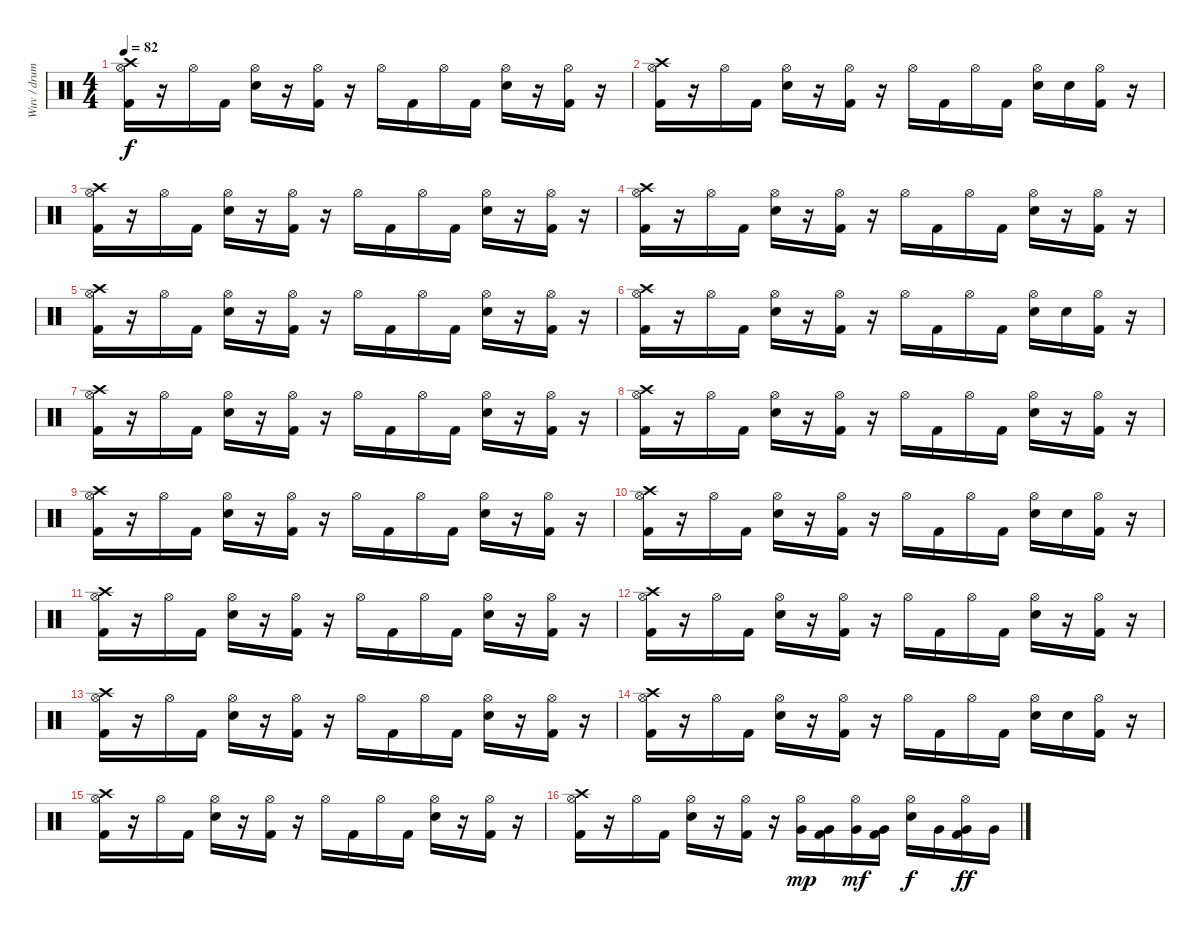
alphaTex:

\track ("Wuv / drums" "Wuv / drum") {instrument percussion}
\staff {score}
\articulation defaults
\ts (4 4)
\tempo 82
\clef neutral
\ks c
("Crash high (hit)" "Hi-Hat (open)" "Kick (hit) 2").16{dy f} r.16 "Hi-Hat (open)".16 "Kick (hit) 2".16 ("Hi-Hat (open)" "Snare (hit) 2").16 r.16 ("Hi-Hat (open)" "Kick (hit) 2").16 r.16 "Hi-Hat (open)".16 "Kick (hit) 2".16 "Hi-Hat (open)".16 "Kick (hit) 2".16 ("Hi-Hat (open)" "Snare (hit) 2").16 r.16 ("Hi-Hat (open)" "Kick (hit) 2").16 r.16 |
("Crash high (hit)" "Hi-Hat (open)" "Kick (hit) 2").16 r.16 "Hi-Hat (open)".16 "Kick (hit) 2".16 ("Hi-Hat (open)" "Snare (hit) 2").16 r.16 ("Hi-Hat (open)" "Kick (hit) 2").16 r.16 "Hi-Hat (open)".16 "Kick (hit) 2".16 "Hi-Hat (open)".16 "Kick (hit) 2".16 ("Hi-Hat (open)" "Snare (hit) 2").16 "Snare (hit) 2".16 ("Hi-Hat (open)" "Kick (hit) 2").16 r.16 |
("Crash high (hit)" "Hi-Hat (open)" "Kick (hit) 2").16 r.16 "Hi-Hat (open)".16 "Kick (hit) 2".16 ("Hi-Hat (open)" "Snare (hit) 2").16 r.16 ("Hi-Hat (open)" "Kick (hit) 2").16 r.16 "Hi-Hat (open)".16 "Kick (hit) 2".16 "Hi-Hat (open)".16 "Kick (hit) 2".16 ("Hi-Hat (open)" "Snare (hit) 2").16 r.16 ("Hi-Hat (open)" "Kick (hit) 2").16 r.16 |
("Crash high (hit)" "Hi-Hat (open)" "Kick (hit) 2").16 r.16 "Hi-Hat (open)".16 "Kick (hit) 2".16 ("Hi-Hat (open)" "Snare (hit) 2").16 r.16 ("Hi-Hat (open)" "Kick (hit) 2").16 r.16 "Hi-Hat (open)".16 "Kick (hit) 2".16 "Hi-Hat (open)".16 "Kick (hit) 2".16 ("Hi-Hat (open)" "Snare (hit) 2").16 r.16 ("Hi-Hat (open)" "Kick (hit) 2").16 r.16 |
("Crash high (hit)" "Hi-Hat (open)" "Kick (hit) 2").16 r.16 "Hi-Hat (open)".16 "Kick (hit) 2".16 ("Hi-Hat (open)" "Snare (hit) 2").16 r.16 ("Hi-Hat (open)" "Kick (hit) 2").16 r.16 "Hi-Hat (open)".16 "Kick (hit) 2".16 "Hi-Hat (open)".16 "Kick (hit) 2".16 ("Hi-Hat (open)" "Snare (hit) 2").16 r.16 ("Hi-Hat (open)" "Kick (hit) 2").16 r.16 |
("Crash high (hit)" "Hi-Hat (open)" "Kick (hit) 2").16 r.16 "Hi-Hat (open)".16 "Kick (hit) 2".16 ("Hi-Hat (open)" "Snare (hit) 2").16 r.16 ("Hi-Hat (open)" "Kick (hit) 2").16 r.16 "Hi-Hat (open)".16 "Kick (hit) 2".16 "Hi-Hat (open)".16 "Kick (hit) 2".16 ("Hi-Hat (open)" "Snare (hit) 2").16 "Snare (hit) 2".16 ("Hi-Hat (open)" "Kick (hit) 2").16 r.16 |
("Crash high (hit)" "Hi-Hat (open)" "Kick (hit) 2").16 r.16 "Hi-Hat (open)".16 "Kick (hit) 2".16 ("Hi-Hat (open)" "Snare (hit) 2").16 r.16 ("Hi-Hat (open)" "Kick (hit) 2").16 r.16 "Hi-Hat (open)".16 "Kick (hit) 2".16 "Hi-Hat (open)".16 "Kick (hit) 2".16 ("Hi-Hat (open)" "Snare (hit) 2").16 r.16 ("Hi-Hat (open)" "Kick (hit) 2").16 r.16 |
("Crash high (hit)" "Hi-Hat (open)" "Kick (hit) 2").16 r.16 "Hi-Hat (open)".16 "Kick (hit) 2".16 ("Hi-Hat (open)" "Snare (hit) 2").16 r.16 ("Hi-Hat (open)" "Kick (hit) 2").16 r.16 "Hi-Hat (open)".16 "Kick (hit) 2".16 "Hi-Hat (open)".16 "Kick (hit) 2".16 ("Hi-Hat (open)" "Snare (hit) 2").16 r.16 ("Hi-Hat (open)" "Kick (hit) 2").16 r.16 |
("Crash high (hit)" "Hi-Hat (open)" "Kick (hit) 2").16 r.16 "Hi-Hat (open)".16 "Kick (hit) 2".16 ("Hi-Hat (open)" "Snare (hit) 2").16 r.16 ("Hi-Hat (open)" "Kick (hit) 2").16 r.16 "Hi-Hat (open)".16 "Kick (hit) 2".16 "Hi-Hat (open)".16 "Kick (hit) 2".16 ("Hi-Hat (open)" "Snare (hit) 2").16 r.16 ("Hi-Hat (open)" "Kick (hit) 2").16 r.16 |
("Crash high (hit)" "Hi-Hat (open)" "Kick (hit) 2").16 r.16 "Hi-Hat (open)".16 "Kick (hit) 2".16 ("Hi-Hat (open)" "Snare (hit) 2").16 r.16 ("Hi-Hat (open)" "Kick (hit) 2").16 r.16 "Hi-Hat (open)".16 "Kick (hit) 2".16 "Hi-Hat (open)".16 "Kick (hit) 2".16 ("Hi-Hat (open)" "Snare (hit) 2").16 "Snare (hit) 2".16 ("Hi-Hat (open)" "Kick (hit) 2").16 r.16 |
("Crash high (hit)" "Hi-Hat (open)" "Kick (hit) 2").16 r.16 "Hi-Hat (open)".16 "Kick (hit) 2".16 ("Hi-Hat (open)" "Snare (hit) 2").16 r.16 ("Hi-Hat (open)" "Kick (hit) 2").16 r.16 "Hi-Hat (open)".16 "Kick (hit) 2".16 "Hi-Hat (open)".16 "Kick (hit) 2".16 ("Hi-Hat (open)" "Snare (hit) 2").16 r.16 ("Hi-Hat (open)" "Kick (hit) 2").16 r.16 |
("Crash high (hit)" "Hi-Hat (open)" "Kick (hit) 2").16 r.16 "Hi-Hat (open)".16 "Kick (hit) 2".16 ("Hi-Hat (open)" "Snare (hit) 2").16 r.16 ("Hi-Hat (open)" "Kick (hit) 2").16 r.16 "Hi-Hat (open)".16 "Kick (hit) 2".16 "Hi-Hat (open)".16 "Kick (hit) 2".16 ("Hi-Hat (open)" "Snare (hit) 2").16 r.16 ("Hi-Hat (open)" "Kick (hit) 2").16 r.16 |
("Crash high (hit)" "Hi-Hat (open)" "Kick (hit) 2").16 r.16 "Hi-Hat (open)".16 "Kick (hit) 2".16 ("Hi-Hat (open)" "Snare (hit) 2").16 r.16 ("Hi-Hat (open)" "Kick (hit) 2").16 r.16 "Hi-Hat (open)".16 "Kick (hit) 2".16 "Hi-Hat (open)".16 "Kick (hit) 2".16 ("Hi-Hat (open)" "Snare (hit) 2").16 r.16 ("Hi-Hat (open)" "Kick (hit) 2").16 r.16 |
("Crash high (hit)" "Hi-Hat (open)" "Kick (hit) 2").16 r.16 "Hi-Hat (open)".16 "Kick (hit) 2".16 ("Hi-Hat (open)" "Snare (hit) 2").16 r.16 ("Hi-Hat (open)" "Kick (hit) 2").16 r.16 "Hi-Hat (open)".16 "Kick (hit) 2".16 "Hi-Hat (open)".16 "Kick (hit) 2".16 ("Hi-Hat (open)" "Snare (hit) 2").16 "Snare (hit) 2".16 ("Hi-Hat (open)" "Kick (hit) 2").16 r.16 |
("Crash high (hit)" "Hi-Hat (open)" "Kick (hit) 2").16 r.16 "Hi-Hat (open)".16 "Kick (hit) 2".16 ("Hi-Hat (open)" "Snare (hit) 2").16 r.16 ("Hi-Hat (open)" "Kick (hit) 2").16 r.16 "Hi-Hat (open)".16 "Kick (hit) 2".16 "Hi-Hat (open)".16 "Kick (hit) 2".16 ("Hi-Hat (open)" "Snare (hit) 2").16 r.16 ("Hi-Hat (open)" "Kick (hit) 2").16 r.16 |
("Crash high (hit)" "Hi-Hat (open)" "Kick (hit) 2").16 r.16 "Hi-Hat (open)".16 "Kick (hit) 2".16 ("Hi-Hat (open)" "Snare (hit) 2").16 r.16 ("Hi-Hat (open)" "Kick (hit) 2").16 r.16 ("Hi-Hat (open)" "Very Low Tom (hit)").16{dy mp} ("Very Low Tom (hit)" "Kick (hit) 2").16 ("Hi-Hat (open)" "Very Low Tom (hit)").16{dy mf} ("Very Low Tom (hit)" "Kick (hit) 2").16 ("Hi-Hat (open)" "Snare (hit) 2").16{dy f} "Very Low Tom (hit)".16 ("Hi-Hat (open)" "Very Low Tom (hit)" "Kick (hit) 2").16{dy ff} "Very Low Tom (hit)".16
